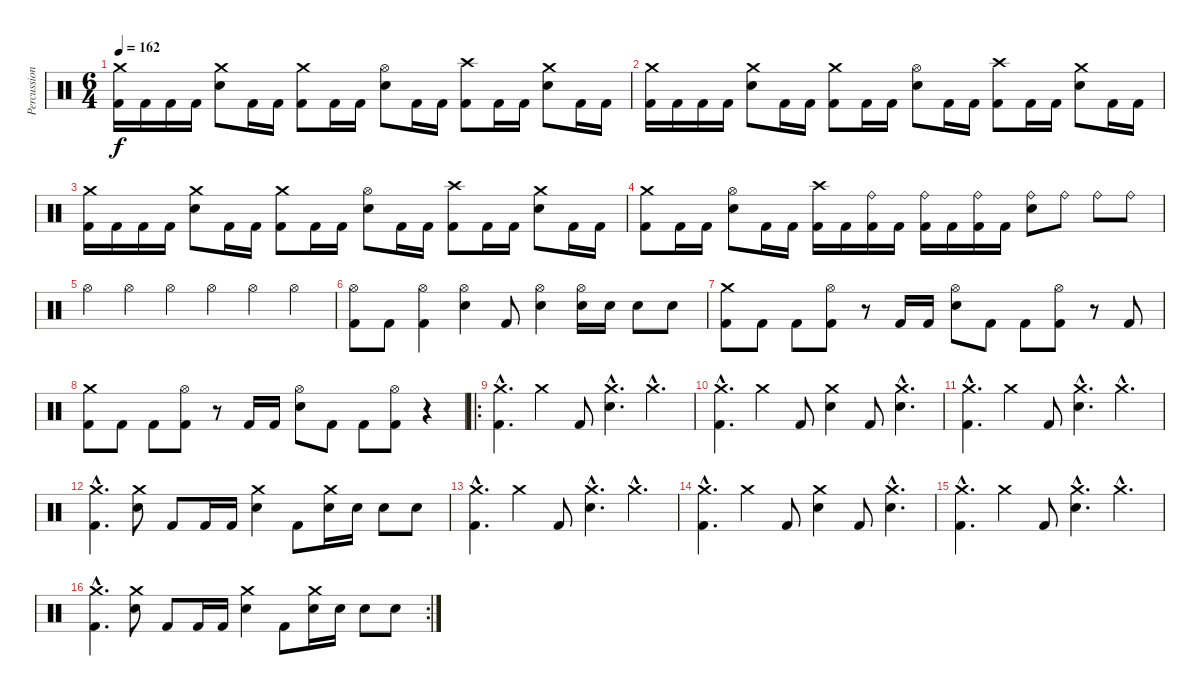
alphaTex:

\track ("Percussion" "Percussion") {instrument percussion}
\staff {score}
\articulation defaults
\ts (6 4)
\tempo 162
\clef neutral
\ks c
("Crash medium (hit)" "Kick (hit) 2").16{dy f} "Kick (hit) 2".16 "Kick (hit) 2".16 "Kick (hit) 2".16 ("Crash medium (hit)" "Electric Snare (hit)").8 "Kick (hit) 2".16 "Kick (hit) 2".16 ("Crash medium (hit)" "Kick (hit) 2").8 "Kick (hit) 2".16 "Kick (hit) 2".16 ("Hi-Hat (open)" "Electric Snare (hit)").8 "Kick (hit) 2".16 "Kick (hit) 2".16 ("Crash high (hit)" "Kick (hit) 2").8 "Kick (hit) 2".16 "Kick (hit) 2".16 ("Crash medium (hit)" "Electric Snare (hit)").8 "Kick (hit) 2".16 "Kick (hit) 2".16 |
("Crash medium (hit)" "Kick (hit) 2").16 "Kick (hit) 2".16 "Kick (hit) 2".16 "Kick (hit) 2".16 ("Crash medium (hit)" "Electric Snare (hit)").8 "Kick (hit) 2".16 "Kick (hit) 2".16 ("Crash medium (hit)" "Kick (hit) 2").8 "Kick (hit) 2".16 "Kick (hit) 2".16 ("Hi-Hat (open)" "Electric Snare (hit)").8 "Kick (hit) 2".16 "Kick (hit) 2".16 ("Crash high (hit)" "Kick (hit) 2").8 "Kick (hit) 2".16 "Kick (hit) 2".16 ("Crash medium (hit)" "Electric Snare (hit)").8 "Kick (hit) 2".16 "Kick (hit) 2".16 |
("Crash medium (hit)" "Kick (hit) 2").16 "Kick (hit) 2".16 "Kick (hit) 2".16 "Kick (hit) 2".16 ("Crash medium (hit)" "Electric Snare (hit)").8 "Kick (hit) 2".16 "Kick (hit) 2".16 ("Crash medium (hit)" "Kick (hit) 2").8 "Kick (hit) 2".16 "Kick (hit) 2".16 ("Hi-Hat (open)" "Electric Snare (hit)").8 "Kick (hit) 2".16 "Kick (hit) 2".16 ("Crash high (hit)" "Kick (hit) 2").8 "Kick (hit) 2".16 "Kick (hit) 2".16 ("Crash medium (hit)" "Electric Snare (hit)").8 "Kick (hit) 2".16 "Kick (hit) 2".16 |
("Crash medium (hit)" "Kick (hit) 2").8 "Kick (hit) 2".16 "Kick (hit) 2".16 ("Hi-Hat (open)" "Electric Snare (hit)").8 "Kick (hit) 2".16 "Kick (hit) 2".16 ("Crash high (hit)" "Kick (hit) 2").16 "Kick (hit) 2".16 ("Ride (bell)" "Kick (hit) 2").16 "Kick (hit) 2".16 ("Ride (bell)" "Kick (hit) 2").16 "Kick (hit) 2".16 ("Ride (bell)" "Kick (hit) 2").16 "Kick (hit) 2".16 ("Ride (bell)" "Electric Snare (hit)").8 "Ride (bell)".8 "Ride (bell)".8 "Ride (bell)".8 |
"Hi-Hat (open)".4 "Hi-Hat (open)".4 "Hi-Hat (open)".4 "Hi-Hat (open)".4 "Hi-Hat (open)".4 "Hi-Hat (open)".4 |
("Hi-Hat (open)" "Kick (hit) 2").8 "Kick (hit) 2".8 ("Hi-Hat (open)" "Kick (hit) 2").4 ("Hi-Hat (open)" "Electric Snare (hit)").4 "Kick (hit) 2".8 ("Hi-Hat (open)" "Electric Snare (hit)").4 ("Hi-Hat (open)" "Electric Snare (hit)").16 "Electric Snare (hit)".16 "Electric Snare (hit)".8 "Electric Snare (hit)".8 |
("Crash medium (hit)" "Kick (hit) 2").8 "Kick (hit) 2".8 "Kick (hit) 2".8 ("Hi-Hat (open)" "Kick (hit) 2").8 r.8 "Kick (hit) 2".16 "Kick (hit) 2".16 ("Hi-Hat (open)" "Electric Snare (hit)").8 "Kick (hit) 2".8 "Kick (hit) 2".8 ("Hi-Hat (open)" "Kick (hit) 2").8 r.8 "Kick (hit) 2".8 |
("Crash medium (hit)" "Kick (hit) 2").8 "Kick (hit) 2".8 "Kick (hit) 2".8 ("Hi-Hat (open)" "Kick (hit) 2").8 r.8 "Kick (hit) 2".16 "Kick (hit) 2".16 ("Hi-Hat (open)" "Electric Snare (hit)").8 "Kick (hit) 2".8 "Kick (hit) 2".8 ("Hi-Hat (open)" "Kick (hit) 2").8 r.4 |
\ro
("Crash medium (hit)"{hac} "Kick (hit) 2"{hac}).4{d} "Crash medium (hit)".4 "Kick (hit) 2".8 ("Crash medium (hit)"{hac} "Electric Snare (hit)"{hac}).4{d} "Crash medium (hit)"{hac}.4{d} |
("Crash medium (hit)"{hac} "Kick (hit) 2"{hac}).4{d} "Crash medium (hit)".4 "Kick (hit) 2".8 ("Crash medium (hit)" "Electric Snare (hit)").4 "Kick (hit) 2".8 ("Crash medium (hit)"{hac} "Electric Snare (hit)"{hac}).4{d} |
("Crash medium (hit)"{hac} "Kick (hit) 2"{hac}).4{d} "Crash medium (hit)".4 "Kick (hit) 2".8 ("Crash medium (hit)"{hac} "Electric Snare (hit)"{hac}).4{d} "Crash medium (hit)"{hac}.4{d} |
("Crash medium (hit)"{hac} "Kick (hit) 2"{hac}).4{d} ("Crash medium (hit)" "Electric Snare (hit)").8 "Kick (hit) 2".8 "Kick (hit) 2".16 "Kick (hit) 2".16 ("Crash medium (hit)" "Electric Snare (hit)").4 "Kick (hit) 2".8 ("Crash medium (hit)" "Electric Snare (hit)").16 "Electric Snare (hit)".16 "Electric Snare (hit)".8 "Electric Snare (hit)".8 |
("Crash medium (hit)"{hac} "Kick (hit) 2"{hac}).4{d} "Crash medium (hit)".4 "Kick (hit) 2".8 ("Crash medium (hit)"{hac} "Electric Snare (hit)"{hac}).4{d} "Crash medium (hit)"{hac}.4{d} |
("Crash medium (hit)"{hac} "Kick (hit) 2"{hac}).4{d} "Crash medium (hit)".4 "Kick (hit) 2".8 ("Crash medium (hit)" "Electric Snare (hit)").4 "Kick (hit) 2".8 ("Crash medium (hit)"{hac} "Electric Snare (hit)"{hac}).4{d} |
("Crash medium (hit)"{hac} "Kick (hit) 2"{hac}).4{d} "Crash medium (hit)".4 "Kick (hit) 2".8 ("Crash medium (hit)"{hac} "Electric Snare (hit)"{hac}).4{d} "Crash medium (hit)"{hac}.4{d} |
\rc 2
("Crash medium (hit)"{hac} "Kick (hit) 2"{hac}).4{d} ("Crash medium (hit)" "Electric Snare (hit)").8 "Kick (hit) 2".8 "Kick (hit) 2".16 "Kick (hit) 2".16 ("Crash medium (hit)" "Electric Snare (hit)").4 "Kick (hit) 2".8 ("Crash medium (hit)" "Electric Snare (hit)").16 "Electric Snare (hit)".16 "Electric Snare (hit)".8 "Electric Snare (hit)".8
